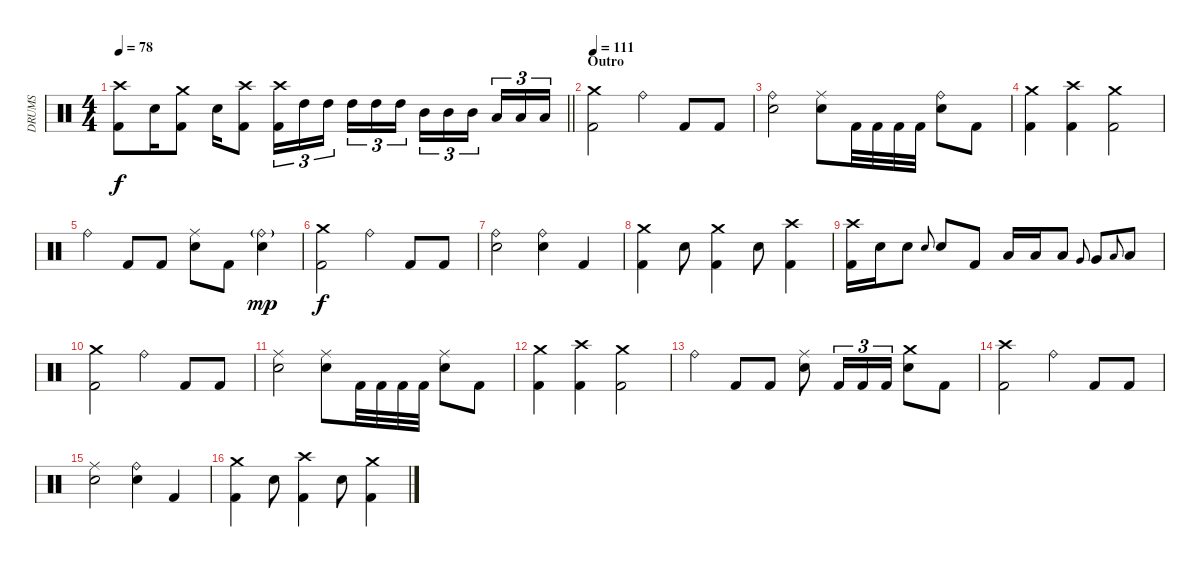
\track ("DRUMS" "DRUMS") {instrument percussion}
\staff {score}
\articulation defaults
\ts (4 4)
\tempo 78
\clef neutral
\barLineRight lightlight
\ks c
("Crash high (hit)" "Kick (hit) 2").8{dy f} "Snare (hit) 2".16 ("Crash medium (hit)" "Kick (hit) 2").8 "Snare (hit) 2".16 ("Crash high (hit)" "Kick (hit) 2").8 ("Crash high (hit)" "Kick (hit) 2").16{tu (3 2)} "High Tom (hit)".16{tu (3 2)} "High Tom (hit)".16{tu (3 2) beam splitsecondary} "High Tom (hit)".16{tu (3 2)} "High Tom (hit)".16{tu (3 2)} "High Tom (hit)".16{tu (3 2)} "Mid Tom (hit)".16{tu (3 2)} "Mid Tom (hit)".16{tu (3 2)} "Mid Tom (hit)".16{tu (3 2) beam splitsecondary} "Low Tom (hit)".16{tu (3 2)} "Low Tom (hit)".16{tu (3 2)} "Low Tom (hit)".16{tu (3 2)} |
\section ("" "Outro")
\tempo 111
("Crash medium (hit)" "Kick (hit) 2").2 "Ride (bell)".4 "Kick (hit) 2".8 "Kick (hit) 2".8 |
("Ride (bell)" "Snare (hit) 2").2 ("Ride (middle)" "Snare (hit) 2").8 "Kick (hit) 2".32 "Kick (hit) 2".32 "Kick (hit) 2".32 "Kick (hit) 2".32 ("Ride (bell)" "Snare (hit) 2").8 "Kick (hit) 2".8 |
("Crash medium (hit)" "Kick (hit) 2").4 ("Crash high (hit)" "Kick (hit) 2").4 ("Crash medium (hit)" "Kick (hit) 2").2 |
"Ride (bell)".4 "Kick (hit) 2".8 "Kick (hit) 2".8 ("Ride (middle)" "Snare (hit) 2").8 "Kick (hit) 2".8 ("Ride (bell)"{g} "Snare (hit) 2").4{dy mp} |
("Crash medium (hit)" "Kick (hit) 2").2{dy f} "Ride (bell)".4 "Kick (hit) 2".8 "Kick (hit) 2".8 |
("Ride (bell)" "Snare (hit) 2").2 ("Ride (bell)" "Snare (hit) 2").4 "Kick (hit) 2".4 |
("Crash medium (hit)" "Kick (hit) 2").4 "Snare (hit) 2".8 ("Crash medium (hit)" "Kick (hit) 2").4 "Snare (hit) 2".8 ("Crash high (hit)" "Kick (hit) 2").4 |
("Crash high (hit)" "Kick (hit) 2").16 "Snare (hit) 2".16 "Snare (hit) 2".8 "Snare (hit) 2".8{gr onbeat} "Snare (hit) 2".8 "Kick (hit) 2".8 "Low Tom (hit)".16 "Low Tom (hit)".16 "Low Tom (hit)".8 "Very Low Tom (hit)".8{gr onbeat} "Very Low Tom (hit)".8 "Low Floor Tom (hit)".8{gr onbeat} "Low Floor Tom (hit)".8 |
("Crash medium (hit)" "Kick (hit) 2").2 "Ride (bell)".4 "Kick (hit) 2".8 "Kick (hit) 2".8 |
("Ride (middle)" "Snare (hit) 2").2 ("Ride (middle)" "Snare (hit) 2").8 "Kick (hit) 2".32 "Kick (hit) 2".32 "Kick (hit) 2".32 "Kick (hit) 2".32 ("Ride (middle)" "Snare (hit) 2").8 "Kick (hit) 2".8 |
("Crash medium (hit)" "Kick (hit) 2").4 ("Crash high (hit)" "Kick (hit) 2").4 ("Crash medium (hit)" "Kick (hit) 2").2 |
"Ride (bell)".4 "Kick (hit) 2".8 "Kick (hit) 2".8 ("Ride (middle)" "Snare (hit) 2").8 "Kick (hit) 2".16{tu (3 2)} "Kick (hit) 2".16{tu (3 2)} "Kick (hit) 2".16{tu (3 2)} ("Crash medium (hit)" "Snare (hit) 2").8 "Kick (hit) 2".8 |
("Crash high (hit)" "Kick (hit) 2").2 "Ride (bell)".4 "Kick (hit) 2".8 "Kick (hit) 2".8 |
("Ride (middle)" "Snare (hit) 2").2 ("Ride (bell)" "Snare (hit) 2").4 "Kick (hit) 2".4 |
("Crash medium (hit)" "Kick (hit) 2").4 "Snare (hit) 2".8 ("Crash high (hit)" "Kick (hit) 2").4 "Snare (hit) 2".8 ("Crash medium (hit)" "Kick (hit) 2").4
